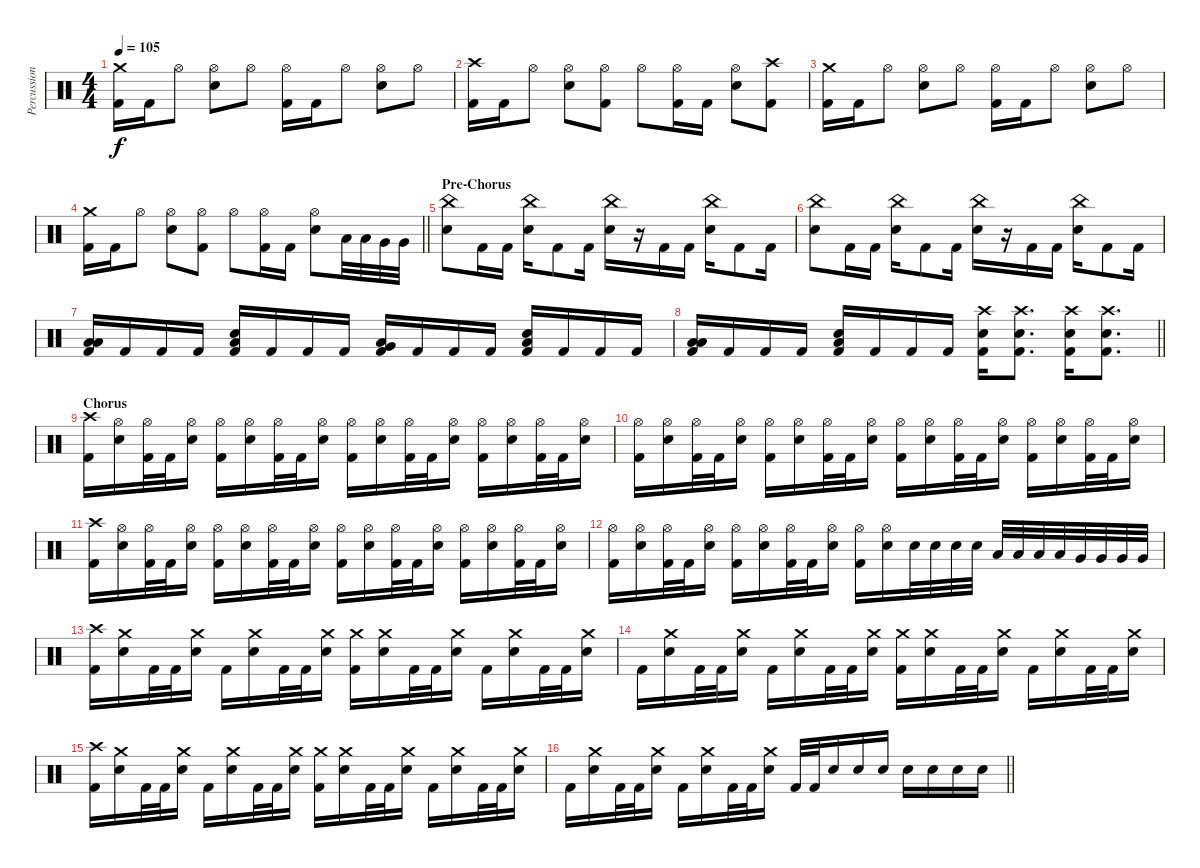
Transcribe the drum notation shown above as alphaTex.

\track ("Percussions" "Percussion") {instrument percussion}
\staff {score}
\articulation defaults
\ts (4 4)
\tempo 105
\clef neutral
\ks c
("Crash medium (hit)" "Kick (hit) 2").16{dy f} "Kick (hit) 2".16 "Hi-Hat (open)".8 ("Hi-Hat (open)" "Electric Snare (hit)").8 "Hi-Hat (open)".8 ("Hi-Hat (open)" "Kick (hit) 2").16 "Kick (hit) 2".16 "Hi-Hat (open)".8 ("Hi-Hat (open)" "Electric Snare (hit)").8 "Hi-Hat (open)".8 |
("Crash high (hit)" "Kick (hit) 2").16 "Kick (hit) 2".16 "Hi-Hat (open)".8 ("Hi-Hat (open)" "Electric Snare (hit)").8 ("Hi-Hat (open)" "Kick (hit) 2").8 "Hi-Hat (open)".8 ("Hi-Hat (open)" "Kick (hit) 2").16 "Kick (hit) 2".16 ("Hi-Hat (open)" "Electric Snare (hit)").8 ("Crash high (hit)" "Kick (hit) 2").8 |
("Crash medium (hit)" "Kick (hit) 2").16 "Kick (hit) 2".16 "Hi-Hat (open)".8 ("Hi-Hat (open)" "Electric Snare (hit)").8 "Hi-Hat (open)".8 ("Hi-Hat (open)" "Kick (hit) 2").16 "Kick (hit) 2".16 "Hi-Hat (open)".8 ("Hi-Hat (open)" "Electric Snare (hit)").8 "Hi-Hat (open)".8 |
\barLineRight lightlight
("Crash medium (hit)" "Kick (hit) 2").16 "Kick (hit) 2".16 "Hi-Hat (open)".8 ("Hi-Hat (open)" "Electric Snare (hit)").8 ("Hi-Hat (open)" "Kick (hit) 2").8 "Hi-Hat (open)".8 ("Hi-Hat (open)" "Kick (hit) 2").16 "Kick (hit) 2".16 ("Hi-Hat (open)" "Electric Snare (hit)").8 "Low Tom (hit)".32 "Low Tom (hit)".32 "Very Low Tom (hit)".32 "Very Low Tom (hit)".32 |
\section ("" "Pre-Chorus")
("China (hit)" "Electric Snare (hit)").8 "Kick (hit) 2".16 "Kick (hit) 2".16 ("China (hit)" "Electric Snare (hit)").16 "Kick (hit) 2".8 "Kick (hit) 2".16 ("China (hit)" "Electric Snare (hit)").16 r.16 "Kick (hit) 2".16 "Kick (hit) 2".16 ("China (hit)" "Electric Snare (hit)").16 "Kick (hit) 2".8 "Kick (hit) 2".16 |
("China (hit)" "Electric Snare (hit)").8 "Kick (hit) 2".16 "Kick (hit) 2".16 ("China (hit)" "Electric Snare (hit)").16 "Kick (hit) 2".8 "Kick (hit) 2".16 ("China (hit)" "Electric Snare (hit)").16 r.16 "Kick (hit) 2".16 "Kick (hit) 2".16 ("China (hit)" "Electric Snare (hit)").16 "Kick (hit) 2".8 "Kick (hit) 2".16 |
("Low Tom (hit)" "Low Floor Tom (hit)" "Kick (hit) 2").16 "Kick (hit) 2".16 "Kick (hit) 2".16 "Kick (hit) 2".16 ("Electric Snare (hit)" "Low Floor Tom (hit)" "Kick (hit) 2").16 "Kick (hit) 2".16 "Kick (hit) 2".16 "Kick (hit) 2".16 ("Very Low Tom (hit)" "Low Floor Tom (hit)" "Kick (hit) 2").16 "Kick (hit) 2".16 "Kick (hit) 2".16 "Kick (hit) 2".16 ("Electric Snare (hit)" "Low Floor Tom (hit)" "Kick (hit) 2").16 "Kick (hit) 2".16 "Kick (hit) 2".16 "Kick (hit) 2".16 |
\barLineRight lightlight
("Low Tom (hit)" "Low Floor Tom (hit)" "Kick (hit) 2").16 "Kick (hit) 2".16 "Kick (hit) 2".16 "Kick (hit) 2".16 ("Electric Snare (hit)" "Low Floor Tom (hit)" "Kick (hit) 2").16 "Kick (hit) 2".16 "Kick (hit) 2".16 "Kick (hit) 2".16 ("Crash high (hit)" "Electric Snare (hit)" "Kick (hit) 2").16 ("Crash high (hit)" "Electric Snare (hit)" "Kick (hit) 2").8{d} ("Crash high (hit)" "Electric Snare (hit)" "Kick (hit) 2").16 ("Crash high (hit)" "Electric Snare (hit)" "Kick (hit) 2").8{d} |
\section ("" "Chorus")
("Crash high (hit)" "Kick (hit) 2").16 ("Hi-Hat (open)" "Electric Snare (hit)").16 ("Hi-Hat (open)" "Kick (hit) 2").32 "Kick (hit) 2".32 ("Hi-Hat (open)" "Electric Snare (hit)").16 ("Hi-Hat (open)" "Kick (hit) 2").16 ("Hi-Hat (open)" "Electric Snare (hit)").16 ("Hi-Hat (open)" "Kick (hit) 2").32 "Kick (hit) 2".32 ("Hi-Hat (open)" "Electric Snare (hit)").16 ("Hi-Hat (open)" "Kick (hit) 2").16 ("Hi-Hat (open)" "Electric Snare (hit)").16 ("Hi-Hat (open)" "Kick (hit) 2").32 "Kick (hit) 2".32 ("Hi-Hat (open)" "Electric Snare (hit)").16 ("Hi-Hat (open)" "Kick (hit) 2").16 ("Hi-Hat (open)" "Electric Snare (hit)").16 ("Hi-Hat (open)" "Kick (hit) 2").32 "Kick (hit) 2".32 ("Hi-Hat (open)" "Electric Snare (hit)").16 |
("Hi-Hat (open)" "Kick (hit) 2").16 ("Hi-Hat (open)" "Electric Snare (hit)").16 ("Hi-Hat (open)" "Kick (hit) 2").32 "Kick (hit) 2".32 ("Hi-Hat (open)" "Electric Snare (hit)").16 ("Hi-Hat (open)" "Kick (hit) 2").16 ("Hi-Hat (open)" "Electric Snare (hit)").16 ("Hi-Hat (open)" "Kick (hit) 2").32 "Kick (hit) 2".32 ("Hi-Hat (open)" "Electric Snare (hit)").16 ("Hi-Hat (open)" "Kick (hit) 2").16 ("Hi-Hat (open)" "Electric Snare (hit)").16 ("Hi-Hat (open)" "Kick (hit) 2").32 "Kick (hit) 2".32 ("Hi-Hat (open)" "Electric Snare (hit)").16 ("Hi-Hat (open)" "Kick (hit) 2").16 ("Hi-Hat (open)" "Electric Snare (hit)").16 ("Hi-Hat (open)" "Kick (hit) 2").32 "Kick (hit) 2".32 ("Hi-Hat (open)" "Electric Snare (hit)").16 |
("Crash high (hit)" "Kick (hit) 2").16 ("Hi-Hat (open)" "Electric Snare (hit)").16 ("Hi-Hat (open)" "Kick (hit) 2").32 "Kick (hit) 2".32 ("Hi-Hat (open)" "Electric Snare (hit)").16 ("Hi-Hat (open)" "Kick (hit) 2").16 ("Hi-Hat (open)" "Electric Snare (hit)").16 ("Hi-Hat (open)" "Kick (hit) 2").32 "Kick (hit) 2".32 ("Hi-Hat (open)" "Electric Snare (hit)").16 ("Hi-Hat (open)" "Kick (hit) 2").16 ("Hi-Hat (open)" "Electric Snare (hit)").16 ("Hi-Hat (open)" "Kick (hit) 2").32 "Kick (hit) 2".32 ("Hi-Hat (open)" "Electric Snare (hit)").16 ("Hi-Hat (open)" "Kick (hit) 2").16 ("Hi-Hat (open)" "Electric Snare (hit)").16 ("Hi-Hat (open)" "Kick (hit) 2").32 "Kick (hit) 2".32 ("Hi-Hat (open)" "Electric Snare (hit)").16 |
("Hi-Hat (open)" "Kick (hit) 2").16 ("Hi-Hat (open)" "Electric Snare (hit)").16 ("Hi-Hat (open)" "Kick (hit) 2").32 "Kick (hit) 2".32 ("Hi-Hat (open)" "Electric Snare (hit)").16 ("Hi-Hat (open)" "Kick (hit) 2").16 ("Hi-Hat (open)" "Electric Snare (hit)").16 ("Hi-Hat (open)" "Kick (hit) 2").32 "Kick (hit) 2".32 ("Hi-Hat (open)" "Electric Snare (hit)").16 ("Hi-Hat (open)" "Kick (hit) 2").16 ("Hi-Hat (open)" "Electric Snare (hit)").16 "Electric Snare (hit)".32 "Electric Snare (hit)".32 "Electric Snare (hit)".32 "Electric Snare (hit)".32 "Low Tom (hit)".32 "Low Tom (hit)".32 "Low Tom (hit)".32 "Low Tom (hit)".32 "Very Low Tom (hit)".32 "Very Low Tom (hit)".32 "Very Low Tom (hit)".32 "Very Low Tom (hit)".32 |
("Crash high (hit)" "Kick (hit) 2").16 ("Crash medium (hit)" "Electric Snare (hit)").16 "Kick (hit) 2".32 "Kick (hit) 2".32 ("Crash medium (hit)" "Electric Snare (hit)").16 "Kick (hit) 2".16 ("Crash medium (hit)" "Electric Snare (hit)").16 "Kick (hit) 2".32 "Kick (hit) 2".32 ("Crash medium (hit)" "Electric Snare (hit)").16 ("Crash medium (hit)" "Kick (hit) 2").16 ("Crash medium (hit)" "Electric Snare (hit)").16 "Kick (hit) 2".32 "Kick (hit) 2".32 ("Crash medium (hit)" "Electric Snare (hit)").16 "Kick (hit) 2".16 ("Crash medium (hit)" "Electric Snare (hit)").16 "Kick (hit) 2".32 "Kick (hit) 2".32 ("Crash medium (hit)" "Electric Snare (hit)").16 |
"Kick (hit) 2".16 ("Crash medium (hit)" "Electric Snare (hit)").16 "Kick (hit) 2".32 "Kick (hit) 2".32 ("Crash medium (hit)" "Electric Snare (hit)").16 "Kick (hit) 2".16 ("Crash medium (hit)" "Electric Snare (hit)").16 "Kick (hit) 2".32 "Kick (hit) 2".32 ("Crash medium (hit)" "Electric Snare (hit)").16 ("Crash medium (hit)" "Kick (hit) 2").16 ("Crash medium (hit)" "Electric Snare (hit)").16 "Kick (hit) 2".32 "Kick (hit) 2".32 ("Crash medium (hit)" "Electric Snare (hit)").16 "Kick (hit) 2".16 ("Crash medium (hit)" "Electric Snare (hit)").16 "Kick (hit) 2".32 "Kick (hit) 2".32 ("Crash medium (hit)" "Electric Snare (hit)").16 |
("Crash high (hit)" "Kick (hit) 2").16 ("Crash medium (hit)" "Electric Snare (hit)").16 "Kick (hit) 2".32 "Kick (hit) 2".32 ("Crash medium (hit)" "Electric Snare (hit)").16 "Kick (hit) 2".16 ("Crash medium (hit)" "Electric Snare (hit)").16 "Kick (hit) 2".32 "Kick (hit) 2".32 ("Crash medium (hit)" "Electric Snare (hit)").16 ("Crash medium (hit)" "Kick (hit) 2").16 ("Crash medium (hit)" "Electric Snare (hit)").16 "Kick (hit) 2".32 "Kick (hit) 2".32 ("Crash medium (hit)" "Electric Snare (hit)").16 "Kick (hit) 2".16 ("Crash medium (hit)" "Electric Snare (hit)").16 "Kick (hit) 2".32 "Kick (hit) 2".32 ("Crash medium (hit)" "Electric Snare (hit)").16 |
\barLineRight lightlight "Kick (hit) 2".16
("Crash medium (hit)" "Electric Snare (hit)").16 "Kick (hit) 2".32 "Kick (hit) 2".32 ("Crash medium (hit)" "Electric Snare (hit)").16 "Kick (hit) 2".16 ("Crash medium (hit)" "Electric Snare (hit)").16 "Kick (hit) 2".32 "Kick (hit) 2".32 ("Crash medium (hit)" "Electric Snare (hit)").16 "Kick (hit) 2".32 "Kick (hit) 2".32 "Electric Snare (hit)".16 "Electric Snare (hit)".16 "Electric Snare (hit)".16 "Electric Snare (hit)".16 "Electric Snare (hit)".16 "Electric Snare (hit)".16 "Electric Snare (hit)".16
